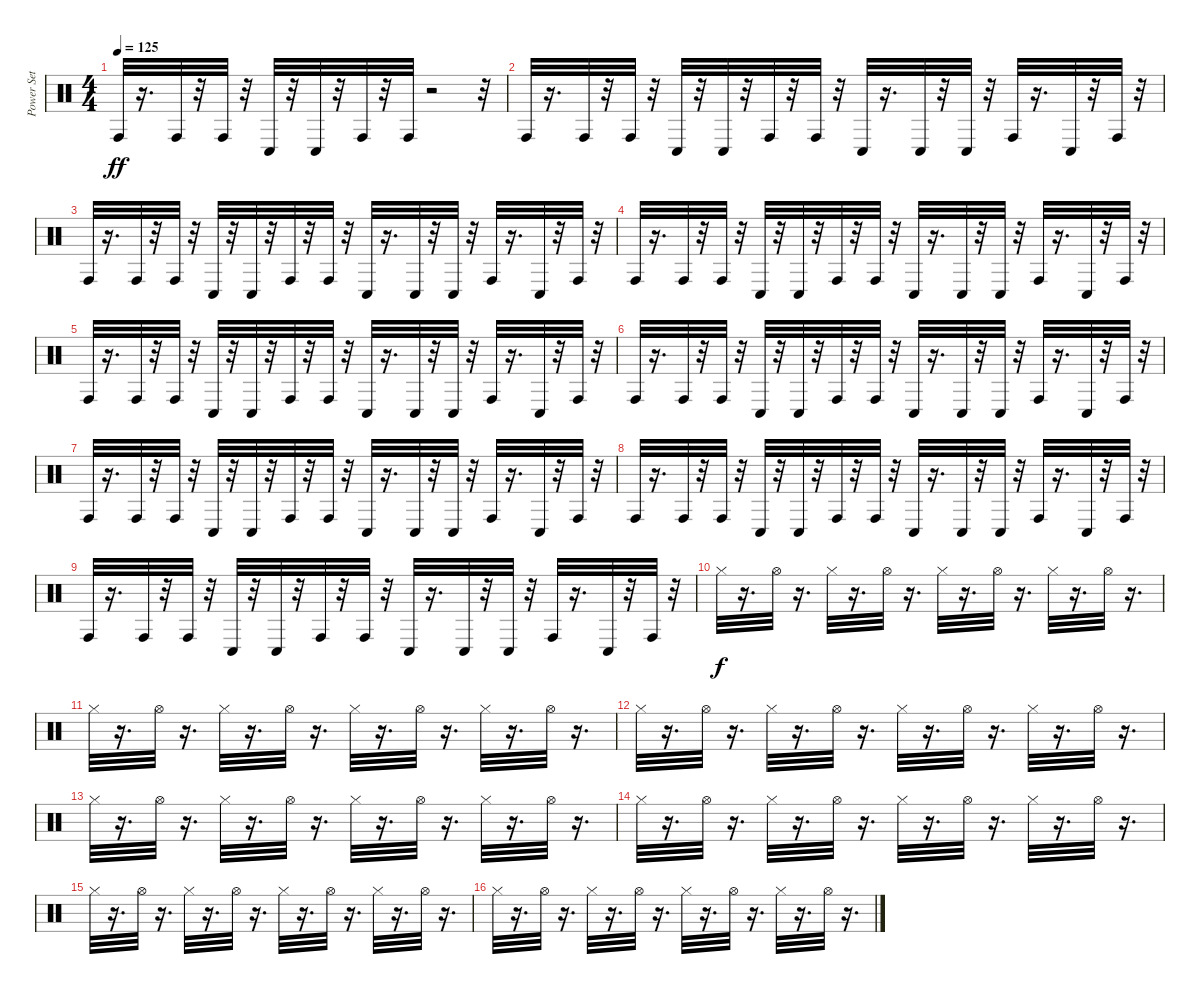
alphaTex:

\track ("Power Set" "Power Set") {instrument percussion}
\staff {score}
\articulation defaults
\ts (4 4)
\tempo 125
\clef neutral
\ks c "Conga high (hit)".32{dy ff}
r.16{d} "Conga high (hit)".32 r.32 "Conga high (hit)".32 r.32 "Conga low (hit)".32 r.32 "Conga low (hit)".32 r.32 "Conga high (hit)".32 r.32 "Conga high (hit)".32 r.2 r.32 |
"Conga high (hit)".32 r.16{d} "Conga high (hit)".32 r.32 "Conga high (hit)".32 r.32 "Conga low (hit)".32 r.32 "Conga low (hit)".32 r.32 "Conga high (hit)".32 r.32 "Conga high (hit)".32 r.32 "Conga low (hit)".32 r.16{d} "Conga low (hit)".32 r.32 "Conga low (hit)".32 r.32 "Conga high (hit)".32 r.16{d} "Conga low (hit)".32 r.32 "Conga high (hit)".32 r.32 |
"Conga high (hit)".32 r.16{d} "Conga high (hit)".32 r.32 "Conga high (hit)".32 r.32 "Conga low (hit)".32 r.32 "Conga low (hit)".32 r.32 "Conga high (hit)".32 r.32 "Conga high (hit)".32 r.32 "Conga low (hit)".32 r.16{d} "Conga low (hit)".32 r.32 "Conga low (hit)".32 r.32 "Conga high (hit)".32 r.16{d} "Conga low (hit)".32 r.32 "Conga high (hit)".32 r.32 |
"Conga high (hit)".32 r.16{d} "Conga high (hit)".32 r.32 "Conga high (hit)".32 r.32 "Conga low (hit)".32 r.32 "Conga low (hit)".32 r.32 "Conga high (hit)".32 r.32 "Conga high (hit)".32 r.32 "Conga low (hit)".32 r.16{d} "Conga low (hit)".32 r.32 "Conga low (hit)".32 r.32 "Conga high (hit)".32 r.16{d} "Conga low (hit)".32 r.32 "Conga high (hit)".32 r.32 |
"Conga high (hit)".32 r.16{d} "Conga high (hit)".32 r.32 "Conga high (hit)".32 r.32 "Conga low (hit)".32 r.32 "Conga low (hit)".32 r.32 "Conga high (hit)".32 r.32 "Conga high (hit)".32 r.32 "Conga low (hit)".32 r.16{d} "Conga low (hit)".32 r.32 "Conga low (hit)".32 r.32 "Conga high (hit)".32 r.16{d} "Conga low (hit)".32 r.32 "Conga high (hit)".32 r.32 |
"Conga high (hit)".32 r.16{d} "Conga high (hit)".32 r.32 "Conga high (hit)".32 r.32 "Conga low (hit)".32 r.32 "Conga low (hit)".32 r.32 "Conga high (hit)".32 r.32 "Conga high (hit)".32 r.32 "Conga low (hit)".32 r.16{d} "Conga low (hit)".32 r.32 "Conga low (hit)".32 r.32 "Conga high (hit)".32 r.16{d} "Conga low (hit)".32 r.32 "Conga high (hit)".32 r.32 |
"Conga high (hit)".32 r.16{d} "Conga high (hit)".32 r.32 "Conga high (hit)".32 r.32 "Conga low (hit)".32 r.32 "Conga low (hit)".32 r.32 "Conga high (hit)".32 r.32 "Conga high (hit)".32 r.32 "Conga low (hit)".32 r.16{d} "Conga low (hit)".32 r.32 "Conga low (hit)".32 r.32 "Conga high (hit)".32 r.16{d} "Conga low (hit)".32 r.32 "Conga high (hit)".32 r.32 |
"Conga high (hit)".32 r.16{d} "Conga high (hit)".32 r.32 "Conga high (hit)".32 r.32 "Conga low (hit)".32 r.32 "Conga low (hit)".32 r.32 "Conga high (hit)".32 r.32 "Conga high (hit)".32 r.32 "Conga low (hit)".32 r.16{d} "Conga low (hit)".32 r.32 "Conga low (hit)".32 r.32 "Conga high (hit)".32 r.16{d} "Conga low (hit)".32 r.32 "Conga high (hit)".32 r.32 |
"Conga high (hit)".32 r.16{d} "Conga high (hit)".32 r.32 "Conga high (hit)".32 r.32 "Conga low (hit)".32 r.32 "Conga low (hit)".32 r.32 "Conga high (hit)".32 r.32 "Conga high (hit)".32 r.32 "Conga low (hit)".32 r.16{d} "Conga low (hit)".32 r.32 "Conga low (hit)".32 r.32 "Conga high (hit)".32 r.16{d} "Conga low (hit)".32 r.32 "Conga high (hit)".32 r.32 |
"Hi-Hat (closed)".32{dy f} r.16{d} "Hi-Hat (open)".32 r.16{d} "Hi-Hat (closed)".32 r.16{d} "Hi-Hat (open)".32 r.16{d} "Hi-Hat (closed)".32 r.16{d} "Hi-Hat (open)".32 r.16{d} "Hi-Hat (closed)".32 r.16{d} "Hi-Hat (open)".32 r.16{d} |
"Hi-Hat (closed)".32 r.16{d} "Hi-Hat (open)".32 r.16{d} "Hi-Hat (closed)".32 r.16{d} "Hi-Hat (open)".32 r.16{d} "Hi-Hat (closed)".32 r.16{d} "Hi-Hat (open)".32 r.16{d} "Hi-Hat (closed)".32 r.16{d} "Hi-Hat (open)".32 r.16{d} |
"Hi-Hat (closed)".32 r.16{d} "Hi-Hat (open)".32 r.16{d} "Hi-Hat (closed)".32 r.16{d} "Hi-Hat (open)".32 r.16{d} "Hi-Hat (closed)".32 r.16{d} "Hi-Hat (open)".32 r.16{d} "Hi-Hat (closed)".32 r.16{d} "Hi-Hat (open)".32 r.16{d} |
"Hi-Hat (closed)".32 r.16{d} "Hi-Hat (open)".32 r.16{d} "Hi-Hat (closed)".32 r.16{d} "Hi-Hat (open)".32 r.16{d} "Hi-Hat (closed)".32 r.16{d} "Hi-Hat (open)".32 r.16{d} "Hi-Hat (closed)".32 r.16{d} "Hi-Hat (open)".32 r.16{d} |
"Hi-Hat (closed)".32 r.16{d} "Hi-Hat (open)".32 r.16{d} "Hi-Hat (closed)".32 r.16{d} "Hi-Hat (open)".32 r.16{d} "Hi-Hat (closed)".32 r.16{d} "Hi-Hat (open)".32 r.16{d} "Hi-Hat (closed)".32 r.16{d} "Hi-Hat (open)".32 r.16{d} |
"Hi-Hat (closed)".32 r.16{d} "Hi-Hat (open)".32 r.16{d} "Hi-Hat (closed)".32 r.16{d} "Hi-Hat (open)".32 r.16{d} "Hi-Hat (closed)".32 r.16{d} "Hi-Hat (open)".32 r.16{d} "Hi-Hat (closed)".32 r.16{d} "Hi-Hat (open)".32 r.16{d} |
"Hi-Hat (closed)".32 r.16{d} "Hi-Hat (open)".32 r.16{d} "Hi-Hat (closed)".32 r.16{d} "Hi-Hat (open)".32 r.16{d} "Hi-Hat (closed)".32 r.16{d} "Hi-Hat (open)".32 r.16{d} "Hi-Hat (closed)".32 r.16{d} "Hi-Hat (open)".32 r.16{d}
